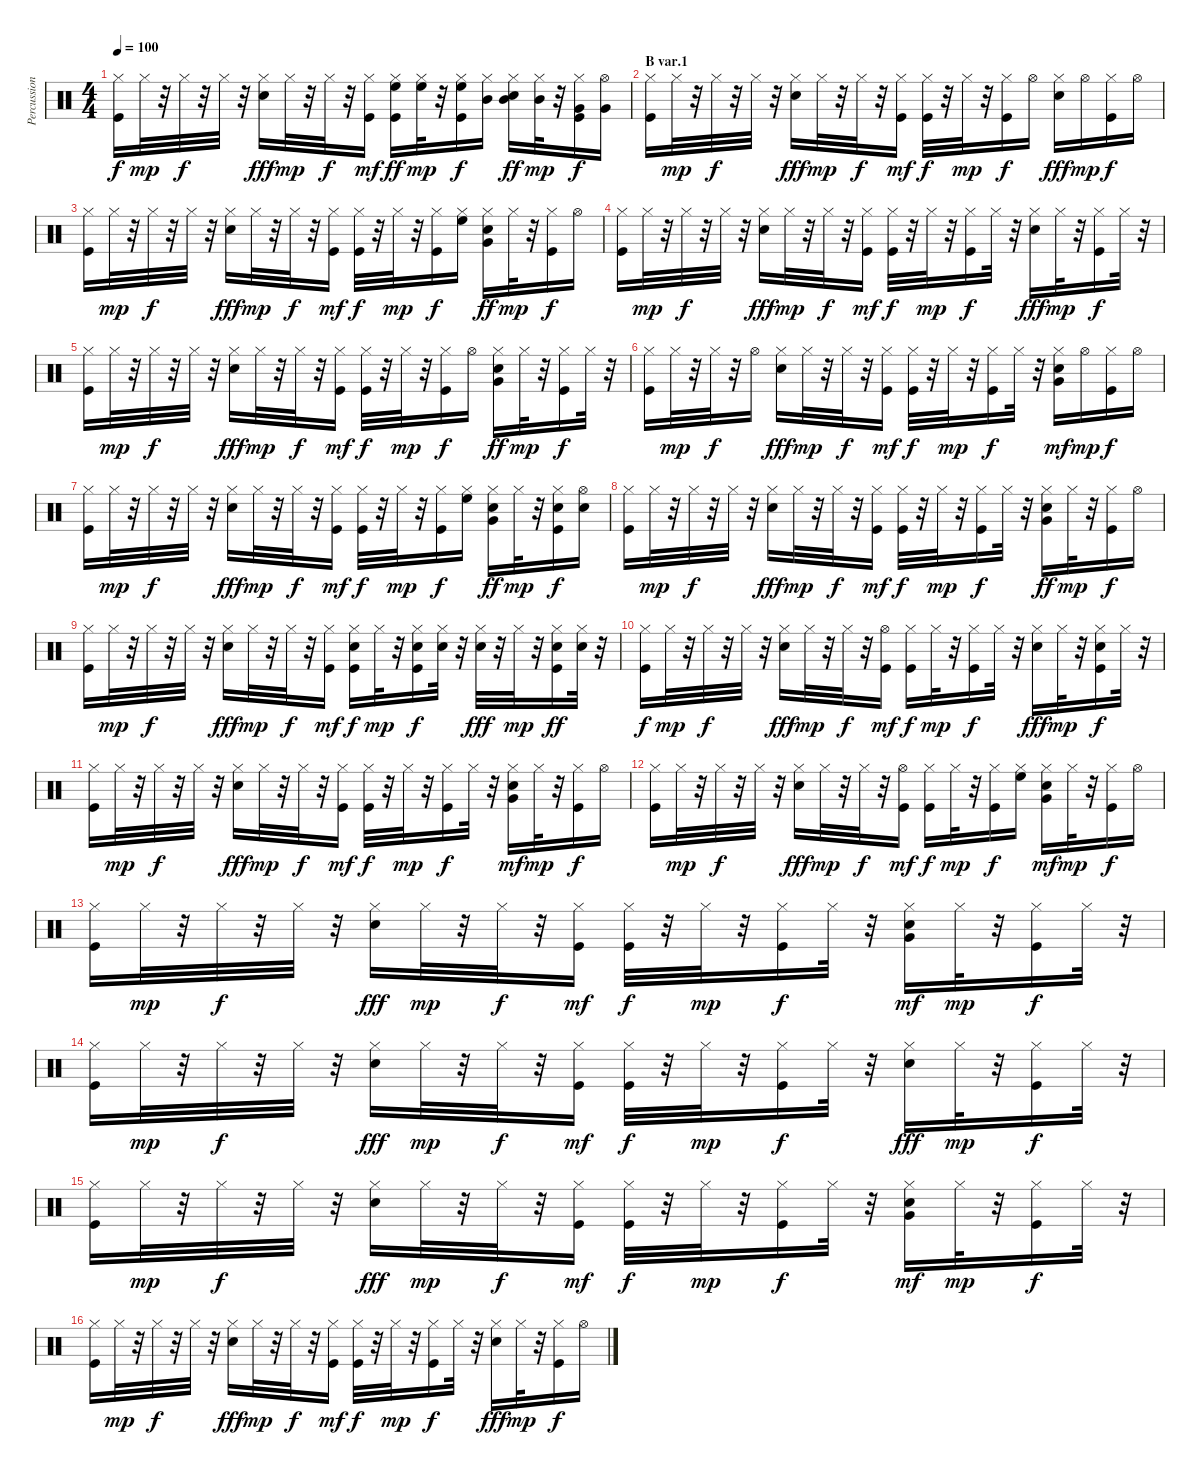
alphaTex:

\track ("Percussion" "Percussion") {instrument percussion}
\staff {score}
\articulation defaults
\ts (4 4)
\tempo 100
\clef neutral
\ks c
("Kick (hit)" "Hi-Hat (closed)").16{dy f} "Hi-Hat (closed)".32{dy mp} r.32 "Hi-Hat (closed)".32{dy f} r.32 "Hi-Hat (closed)".32 r.32 ("Electric Snare (hit)" "Hi-Hat (closed)").16{dy fff} "Hi-Hat (closed)".32{dy mp} r.32 "Hi-Hat (closed)".32{dy f} r.32 ("Kick (hit)" "Hi-Hat (closed)").16{dy mf} ("Kick (hit)" "Hi-Hat (closed)" "High Floor Tom (hit)").16{dy ff} ("Hi-Hat (closed)" "High Floor Tom (hit)").32{dy mp} r.32 ("Kick (hit)" "Hi-Hat (closed)" "High Floor Tom (hit)").16{dy f} ("Hi-Hat (closed)" "Mid Tom (hit)").16 ("Electric Snare (hit)" "Hi-Hat (closed)" "Mid Tom (hit)").16{dy ff} ("Hi-Hat (closed)" "Mid Tom (hit)").32{dy mp} r.32 ("Kick (hit)" "Hi-Hat (closed)" "Very Low Tom (hit)").16{dy f} ("Very Low Tom (hit)" "Hi-Hat (open)").16 |
\section ("" "B var.1")
("Kick (hit)" "Hi-Hat (closed)").16 "Hi-Hat (closed)".32{dy mp} r.32 "Hi-Hat (closed)".32{dy f} r.32 "Hi-Hat (closed)".32 r.32 ("Electric Snare (hit)" "Hi-Hat (closed)").16{dy fff} "Hi-Hat (closed)".32{dy mp} r.32 "Hi-Hat (closed)".32{dy f} r.32 ("Kick (hit)" "Hi-Hat (closed)").16{dy mf} ("Kick (hit)" "Hi-Hat (closed)").32{dy f} r.32 "Hi-Hat (closed)".32{dy mp} r.32 ("Kick (hit)" "Hi-Hat (closed)").16{dy f} "Hi-Hat (open)".16 ("Electric Snare (hit)" "Hi-Hat (closed)").16{dy fff} "Hi-Hat (open)".16{dy mp} ("Kick (hit)" "Hi-Hat (closed)").16{dy f} "Hi-Hat (open)".16 |
("Kick (hit)" "Hi-Hat (closed)").16 "Hi-Hat (closed)".32{dy mp} r.32 "Hi-Hat (closed)".32{dy f} r.32 "Hi-Hat (closed)".32 r.32 ("Electric Snare (hit)" "Hi-Hat (closed)").16{dy fff} "Hi-Hat (closed)".32{dy mp} r.32 "Hi-Hat (closed)".32{dy f} r.32 ("Kick (hit)" "Hi-Hat (closed)").16{dy mf} ("Kick (hit)" "Hi-Hat (closed)").32{dy f} r.32 "Hi-Hat (closed)".32{dy mp} r.32 ("Kick (hit)" "Hi-Hat (closed)").16{dy f} ("Hi-Hat (closed)" "High Floor Tom (hit)").16 ("Electric Snare (hit)" "Hi-Hat (closed)" "Very Low Tom (hit)").16{dy ff} "Hi-Hat (closed)".32{dy mp} r.32 ("Kick (hit)" "Hi-Hat (closed)").16{dy f} "Hi-Hat (open)".16 |
("Kick (hit)" "Hi-Hat (closed)").16 "Hi-Hat (closed)".32{dy mp} r.32 "Hi-Hat (closed)".32{dy f} r.32 "Hi-Hat (closed)".32 r.32 ("Electric Snare (hit)" "Hi-Hat (closed)").16{dy fff} "Hi-Hat (closed)".32{dy mp} r.32 "Hi-Hat (closed)".32{dy f} r.32 ("Kick (hit)" "Hi-Hat (closed)").16{dy mf} ("Kick (hit)" "Hi-Hat (closed)").32{dy f} r.32 "Hi-Hat (closed)".32{dy mp} r.32 ("Kick (hit)" "Hi-Hat (closed)").16{dy f} "Hi-Hat (closed)".32 r.32 ("Electric Snare (hit)" "Hi-Hat (closed)").16{dy fff} "Hi-Hat (closed)".32{dy mp} r.32 ("Kick (hit)" "Hi-Hat (closed)").16{dy f} "Hi-Hat (closed)".32 r.32 |
("Kick (hit)" "Hi-Hat (closed)").16 "Hi-Hat (closed)".32{dy mp} r.32 "Hi-Hat (closed)".32{dy f} r.32 "Hi-Hat (closed)".32 r.32 ("Electric Snare (hit)" "Hi-Hat (closed)").16{dy fff} "Hi-Hat (closed)".32{dy mp} r.32 "Hi-Hat (closed)".32{dy f} r.32 ("Kick (hit)" "Hi-Hat (closed)").16{dy mf} ("Kick (hit)" "Hi-Hat (closed)").32{dy f} r.32 "Hi-Hat (closed)".32{dy mp} r.32 ("Kick (hit)" "Hi-Hat (closed)").16{dy f} "Hi-Hat (open)".16 ("Electric Snare (hit)" "Hi-Hat (closed)" "Very Low Tom (hit)").16{dy ff} "Hi-Hat (closed)".32{dy mp} r.32 ("Kick (hit)" "Hi-Hat (closed)").16{dy f} "Hi-Hat (closed)".32 r.32 |
("Kick (hit)" "Hi-Hat (closed)").16 "Hi-Hat (closed)".32{dy mp} r.32 "Hi-Hat (closed)".32{dy f} r.32 "Hi-Hat (open)".16 ("Electric Snare (hit)" "Hi-Hat (closed)").16{dy fff} "Hi-Hat (closed)".32{dy mp} r.32 "Hi-Hat (closed)".32{dy f} r.32 ("Kick (hit)" "Hi-Hat (closed)").16{dy mf} ("Kick (hit)" "Hi-Hat (closed)").32{dy f} r.32 "Hi-Hat (closed)".32{dy mp} r.32 ("Kick (hit)" "Hi-Hat (closed)").16{dy f} "Hi-Hat (closed)".32 r.32 ("Electric Snare (hit)" "Hi-Hat (closed)" "Very Low Tom (hit)").16{dy mf} "Hi-Hat (open)".16{dy mp} ("Kick (hit)" "Hi-Hat (closed)").16{dy f} "Hi-Hat (open)".16 |
("Kick (hit)" "Hi-Hat (closed)").16 "Hi-Hat (closed)".32{dy mp} r.32 "Hi-Hat (closed)".32{dy f} r.32 "Hi-Hat (closed)".32 r.32 ("Electric Snare (hit)" "Hi-Hat (closed)").16{dy fff} "Hi-Hat (closed)".32{dy mp} r.32 "Hi-Hat (closed)".32{dy f} r.32 ("Kick (hit)" "Hi-Hat (closed)").16{dy mf} ("Kick (hit)" "Hi-Hat (closed)").32{dy f} r.32 "Hi-Hat (closed)".32{dy mp} r.32 ("Kick (hit)" "Hi-Hat (closed)").16{dy f} ("Hi-Hat (closed)" "High Floor Tom (hit)").16 ("Electric Snare (hit)" "Hi-Hat (closed)" "Very Low Tom (hit)").16{dy ff} "Hi-Hat (closed)".32{dy mp} r.32 ("Kick (hit)" "Electric Snare (hit)" "Hi-Hat (closed)").16{dy f} ("Electric Snare (hit)" "Hi-Hat (open)").16 |
("Kick (hit)" "Hi-Hat (closed)").16 "Hi-Hat (closed)".32{dy mp} r.32 "Hi-Hat (closed)".32{dy f} r.32 "Hi-Hat (closed)".32 r.32 ("Electric Snare (hit)" "Hi-Hat (closed)").16{dy fff} "Hi-Hat (closed)".32{dy mp} r.32 "Hi-Hat (closed)".32{dy f} r.32 ("Kick (hit)" "Hi-Hat (closed)").16{dy mf} ("Kick (hit)" "Hi-Hat (closed)").32{dy f} r.32 "Hi-Hat (closed)".32{dy mp} r.32 ("Kick (hit)" "Hi-Hat (closed)").16{dy f} "Hi-Hat (closed)".32 r.32 ("Electric Snare (hit)" "Hi-Hat (closed)" "Very Low Tom (hit)").16{dy ff} "Hi-Hat (closed)".32{dy mp} r.32 ("Kick (hit)" "Hi-Hat (closed)").16{dy f} "Hi-Hat (open)".16 |
("Kick (hit)" "Hi-Hat (closed)").16 "Hi-Hat (closed)".32{dy mp} r.32 "Hi-Hat (closed)".32{dy f} r.32 "Hi-Hat (closed)".32 r.32 ("Electric Snare (hit)" "Hi-Hat (closed)").16{dy fff} "Hi-Hat (closed)".32{dy mp} r.32 "Hi-Hat (closed)".32{dy f} r.32 ("Kick (hit)" "Hi-Hat (closed)").16{dy mf} ("Kick (hit)" "Electric Snare (hit)" "Hi-Hat (closed)").16{dy f} "Hi-Hat (closed)".32{dy mp} r.32 ("Kick (hit)" "Electric Snare (hit)" "Hi-Hat (closed)").16{dy f} ("Electric Snare (hit)" "Hi-Hat (closed)").32 r.32 ("Electric Snare (hit)" "Hi-Hat (closed)").32{dy fff} r.32 "Hi-Hat (closed)".32{dy mp} r.32 ("Kick (hit)" "Electric Snare (hit)" "Hi-Hat (closed)").16{dy ff} ("Electric Snare (hit)" "Hi-Hat (closed)").32 r.32 |
("Kick (hit)" "Hi-Hat (closed)").16{dy f} "Hi-Hat (closed)".32{dy mp} r.32 "Hi-Hat (closed)".32{dy f} r.32 "Hi-Hat (closed)".32 r.32 ("Electric Snare (hit)" "Hi-Hat (closed)").16{dy fff} "Hi-Hat (closed)".32{dy mp} r.32 "Hi-Hat (closed)".32{dy f} r.32 ("Kick (hit)" "Hi-Hat (open)").16{dy mf} ("Kick (hit)" "Hi-Hat (closed)").16{dy f} "Hi-Hat (closed)".32{dy mp} r.32 ("Kick (hit)" "Hi-Hat (closed)").16{dy f} "Hi-Hat (closed)".32 r.32 ("Electric Snare (hit)" "Hi-Hat (closed)").16{dy fff} "Hi-Hat (closed)".32{dy mp} r.32 ("Kick (hit)" "Electric Snare (hit)" "Hi-Hat (closed)").16{dy f} "Hi-Hat (closed)".32 r.32 |
("Kick (hit)" "Hi-Hat (closed)").16 "Hi-Hat (closed)".32{dy mp} r.32 "Hi-Hat (closed)".32{dy f} r.32 "Hi-Hat (closed)".32 r.32 ("Electric Snare (hit)" "Hi-Hat (closed)").16{dy fff} "Hi-Hat (closed)".32{dy mp} r.32 "Hi-Hat (closed)".32{dy f} r.32 ("Kick (hit)" "Hi-Hat (closed)").16{dy mf} ("Kick (hit)" "Hi-Hat (closed)").32{dy f} r.32 "Hi-Hat (closed)".32{dy mp} r.32 ("Kick (hit)" "Hi-Hat (closed)").16{dy f} "Hi-Hat (closed)".32 r.32 ("Electric Snare (hit)" "Hi-Hat (closed)" "Very Low Tom (hit)").16{dy mf} "Hi-Hat (closed)".32{dy mp} r.32 ("Kick (hit)" "Hi-Hat (closed)").16{dy f} "Hi-Hat (open)".16 |
("Kick (hit)" "Hi-Hat (closed)").16 "Hi-Hat (closed)".32{dy mp} r.32 "Hi-Hat (closed)".32{dy f} r.32 "Hi-Hat (closed)".32 r.32 ("Electric Snare (hit)" "Hi-Hat (closed)").16{dy fff} "Hi-Hat (closed)".32{dy mp} r.32 "Hi-Hat (closed)".32{dy f} r.32 ("Kick (hit)" "Hi-Hat (open)").16{dy mf} ("Kick (hit)" "Hi-Hat (closed)").16{dy f} "Hi-Hat (closed)".32{dy mp} r.32 ("Kick (hit)" "Hi-Hat (closed)").16{dy f} ("Hi-Hat (closed)" "High Floor Tom (hit)").16 ("Electric Snare (hit)" "Hi-Hat (closed)" "Very Low Tom (hit)").16{dy mf} "Hi-Hat (closed)".32{dy mp} r.32 ("Kick (hit)" "Hi-Hat (closed)").16{dy f} "Hi-Hat (open)".16 |
("Kick (hit)" "Hi-Hat (closed)").16 "Hi-Hat (closed)".32{dy mp} r.32 "Hi-Hat (closed)".32{dy f} r.32 "Hi-Hat (closed)".32 r.32 ("Electric Snare (hit)" "Hi-Hat (closed)").16{dy fff} "Hi-Hat (closed)".32{dy mp} r.32 "Hi-Hat (closed)".32{dy f} r.32 ("Kick (hit)" "Hi-Hat (closed)").16{dy mf} ("Kick (hit)" "Hi-Hat (closed)").32{dy f} r.32 "Hi-Hat (closed)".32{dy mp} r.32 ("Kick (hit)" "Hi-Hat (closed)").16{dy f} "Hi-Hat (closed)".32 r.32 ("Electric Snare (hit)" "Hi-Hat (closed)" "Very Low Tom (hit)").16{dy mf} "Hi-Hat (closed)".32{dy mp} r.32 ("Kick (hit)" "Hi-Hat (closed)").16{dy f} "Hi-Hat (closed)".32 r.32 |
("Kick (hit)" "Hi-Hat (closed)").16 "Hi-Hat (closed)".32{dy mp} r.32 "Hi-Hat (closed)".32{dy f} r.32 "Hi-Hat (closed)".32 r.32 ("Electric Snare (hit)" "Hi-Hat (closed)").16{dy fff} "Hi-Hat (closed)".32{dy mp} r.32 "Hi-Hat (closed)".32{dy f} r.32 ("Kick (hit)" "Hi-Hat (closed)").16{dy mf} ("Kick (hit)" "Hi-Hat (closed)").32{dy f} r.32 "Hi-Hat (closed)".32{dy mp} r.32 ("Kick (hit)" "Hi-Hat (closed)").16{dy f} "Hi-Hat (closed)".32 r.32 ("Electric Snare (hit)" "Hi-Hat (closed)").16{dy fff} "Hi-Hat (closed)".32{dy mp} r.32 ("Kick (hit)" "Hi-Hat (closed)").16{dy f} "Hi-Hat (closed)".32 r.32 |
("Kick (hit)" "Hi-Hat (closed)").16 "Hi-Hat (closed)".32{dy mp} r.32 "Hi-Hat (closed)".32{dy f} r.32 "Hi-Hat (closed)".32 r.32 ("Electric Snare (hit)" "Hi-Hat (closed)").16{dy fff} "Hi-Hat (closed)".32{dy mp} r.32 "Hi-Hat (closed)".32{dy f} r.32 ("Kick (hit)" "Hi-Hat (closed)").16{dy mf} ("Kick (hit)" "Hi-Hat (closed)").32{dy f} r.32 "Hi-Hat (closed)".32{dy mp} r.32 ("Kick (hit)" "Hi-Hat (closed)").16{dy f} "Hi-Hat (closed)".32 r.32 ("Electric Snare (hit)" "Hi-Hat (closed)" "Very Low Tom (hit)").16{dy mf} "Hi-Hat (closed)".32{dy mp} r.32 ("Kick (hit)" "Hi-Hat (closed)").16{dy f} "Hi-Hat (closed)".32 r.32 |
("Kick (hit)" "Hi-Hat (closed)").16 "Hi-Hat (closed)".32{dy mp} r.32 "Hi-Hat (closed)".32{dy f} r.32 "Hi-Hat (closed)".32 r.32 ("Electric Snare (hit)" "Hi-Hat (closed)").16{dy fff} "Hi-Hat (closed)".32{dy mp} r.32 "Hi-Hat (closed)".32{dy f} r.32 ("Kick (hit)" "Hi-Hat (closed)").16{dy mf} ("Kick (hit)" "Hi-Hat (closed)").32{dy f} r.32 "Hi-Hat (closed)".32{dy mp} r.32 ("Kick (hit)" "Hi-Hat (closed)").16{dy f} "Hi-Hat (closed)".32 r.32 ("Electric Snare (hit)" "Hi-Hat (closed)").16{dy fff} "Hi-Hat (closed)".32{dy mp} r.32 ("Kick (hit)" "Hi-Hat (closed)").16{dy f} "Hi-Hat (open)".16
